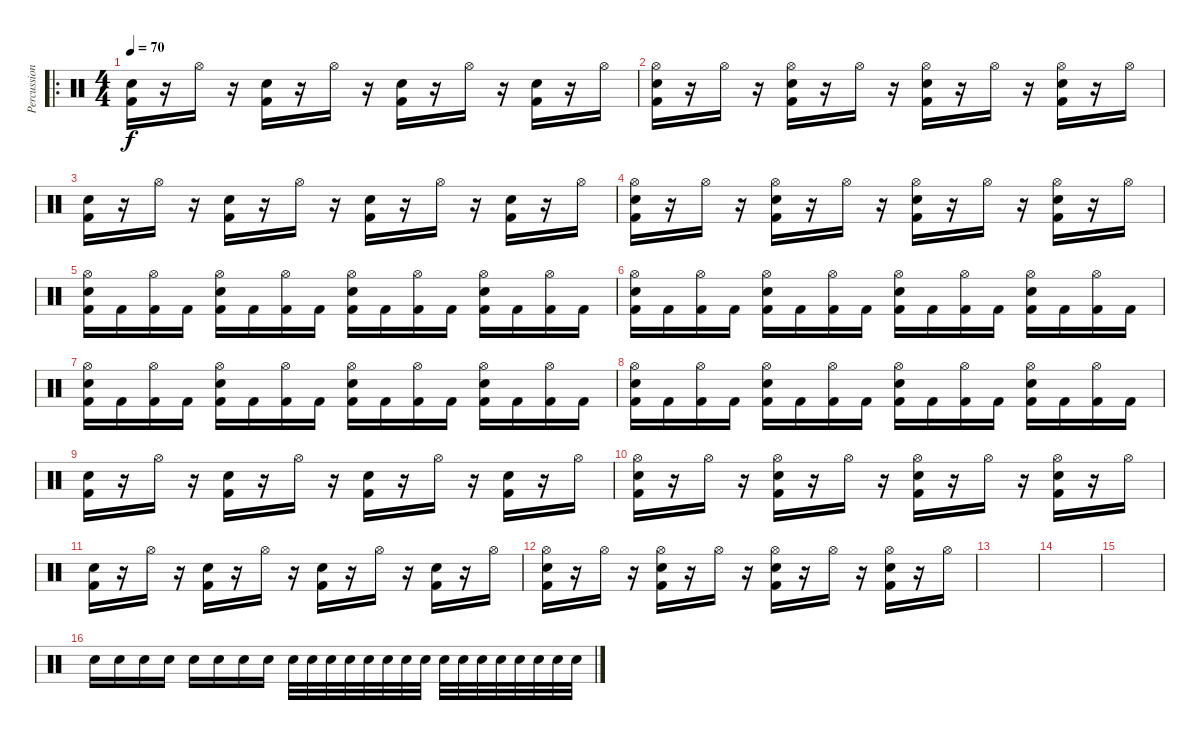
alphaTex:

\track ("Percussions" "Percussion") {instrument percussion}
\staff {score}
\articulation defaults
\ro
\ts (4 4)
\tempo 70
\clef neutral
\ks c
("Snare (hit) 2" "Kick (hit) 2").16{dy f} r.16 "Hi-Hat (open)".16 r.16 ("Snare (hit) 2" "Kick (hit) 2").16 r.16 "Hi-Hat (open)".16 r.16 ("Snare (hit) 2" "Kick (hit) 2").16 r.16 "Hi-Hat (open)".16 r.16 ("Snare (hit) 2" "Kick (hit) 2").16 r.16 "Hi-Hat (open)".16 |
("Hi-Hat (open)" "Snare (hit) 2" "Kick (hit) 2").16 r.16 "Hi-Hat (open)".16 r.16 ("Hi-Hat (open)" "Snare (hit) 2" "Kick (hit) 2").16 r.16 "Hi-Hat (open)".16 r.16 ("Hi-Hat (open)" "Snare (hit) 2" "Kick (hit) 2").16 r.16 "Hi-Hat (open)".16 r.16 ("Hi-Hat (open)" "Snare (hit) 2" "Kick (hit) 2").16 r.16 "Hi-Hat (open)".16 |
("Snare (hit) 2" "Kick (hit) 2").16 r.16 "Hi-Hat (open)".16 r.16 ("Snare (hit) 2" "Kick (hit) 2").16 r.16 "Hi-Hat (open)".16 r.16 ("Snare (hit) 2" "Kick (hit) 2").16 r.16 "Hi-Hat (open)".16 r.16 ("Snare (hit) 2" "Kick (hit) 2").16 r.16 "Hi-Hat (open)".16 |
("Hi-Hat (open)" "Snare (hit) 2" "Kick (hit) 2").16 r.16 "Hi-Hat (open)".16 r.16 ("Hi-Hat (open)" "Snare (hit) 2" "Kick (hit) 2").16 r.16 "Hi-Hat (open)".16 r.16 ("Hi-Hat (open)" "Snare (hit) 2" "Kick (hit) 2").16 r.16 "Hi-Hat (open)".16 r.16 ("Hi-Hat (open)" "Snare (hit) 2" "Kick (hit) 2").16 r.16 "Hi-Hat (open)".16 |
("Hi-Hat (open)" "Snare (hit) 2" "Kick (hit) 2").16 "Kick (hit) 2".16 ("Hi-Hat (open)" "Kick (hit) 2").16 "Kick (hit) 2".16 ("Hi-Hat (open)" "Snare (hit) 2" "Kick (hit) 2").16 "Kick (hit) 2".16 ("Hi-Hat (open)" "Kick (hit) 2").16 "Kick (hit) 2".16 ("Hi-Hat (open)" "Snare (hit) 2" "Kick (hit) 2").16 "Kick (hit) 2".16 ("Hi-Hat (open)" "Kick (hit) 2").16 "Kick (hit) 2".16 ("Hi-Hat (open)" "Snare (hit) 2" "Kick (hit) 2").16 "Kick (hit) 2".16 ("Hi-Hat (open)" "Kick (hit) 2").16 "Kick (hit) 2".16 |
("Hi-Hat (open)" "Snare (hit) 2" "Kick (hit) 2").16 "Kick (hit) 2".16 ("Hi-Hat (open)" "Kick (hit) 2").16 "Kick (hit) 2".16 ("Hi-Hat (open)" "Snare (hit) 2" "Kick (hit) 2").16 "Kick (hit) 2".16 ("Hi-Hat (open)" "Kick (hit) 2").16 "Kick (hit) 2".16 ("Hi-Hat (open)" "Snare (hit) 2" "Kick (hit) 2").16 "Kick (hit) 2".16 ("Hi-Hat (open)" "Kick (hit) 2").16 "Kick (hit) 2".16 ("Hi-Hat (open)" "Snare (hit) 2" "Kick (hit) 2").16 "Kick (hit) 2".16 ("Hi-Hat (open)" "Kick (hit) 2").16 "Kick (hit) 2".16 |
("Hi-Hat (open)" "Snare (hit) 2" "Kick (hit) 2").16 "Kick (hit) 2".16 ("Hi-Hat (open)" "Kick (hit) 2").16 "Kick (hit) 2".16 ("Hi-Hat (open)" "Snare (hit) 2" "Kick (hit) 2").16 "Kick (hit) 2".16 ("Hi-Hat (open)" "Kick (hit) 2").16 "Kick (hit) 2".16 ("Hi-Hat (open)" "Snare (hit) 2" "Kick (hit) 2").16 "Kick (hit) 2".16 ("Hi-Hat (open)" "Kick (hit) 2").16 "Kick (hit) 2".16 ("Hi-Hat (open)" "Snare (hit) 2" "Kick (hit) 2").16 "Kick (hit) 2".16 ("Hi-Hat (open)" "Kick (hit) 2").16 "Kick (hit) 2".16 |
("Hi-Hat (open)" "Snare (hit) 2" "Kick (hit) 2").16 "Kick (hit) 2".16 ("Hi-Hat (open)" "Kick (hit) 2").16 "Kick (hit) 2".16 ("Hi-Hat (open)" "Snare (hit) 2" "Kick (hit) 2").16 "Kick (hit) 2".16 ("Hi-Hat (open)" "Kick (hit) 2").16 "Kick (hit) 2".16 ("Hi-Hat (open)" "Snare (hit) 2" "Kick (hit) 2").16 "Kick (hit) 2".16 ("Hi-Hat (open)" "Kick (hit) 2").16 "Kick (hit) 2".16 ("Hi-Hat (open)" "Snare (hit) 2" "Kick (hit) 2").16 "Kick (hit) 2".16 ("Hi-Hat (open)" "Kick (hit) 2").16 "Kick (hit) 2".16 |
("Snare (hit) 2" "Kick (hit) 2").16 r.16 "Hi-Hat (open)".16 r.16 ("Snare (hit) 2" "Kick (hit) 2").16 r.16 "Hi-Hat (open)".16 r.16 ("Snare (hit) 2" "Kick (hit) 2").16 r.16 "Hi-Hat (open)".16 r.16 ("Snare (hit) 2" "Kick (hit) 2").16 r.16 "Hi-Hat (open)".16 |
("Hi-Hat (open)" "Snare (hit) 2" "Kick (hit) 2").16 r.16 "Hi-Hat (open)".16 r.16 ("Hi-Hat (open)" "Snare (hit) 2" "Kick (hit) 2").16 r.16 "Hi-Hat (open)".16 r.16 ("Hi-Hat (open)" "Snare (hit) 2" "Kick (hit) 2").16 r.16 "Hi-Hat (open)".16 r.16 ("Hi-Hat (open)" "Snare (hit) 2" "Kick (hit) 2").16 r.16 "Hi-Hat (open)".16 |
("Snare (hit) 2" "Kick (hit) 2").16 r.16 "Hi-Hat (open)".16 r.16 ("Snare (hit) 2" "Kick (hit) 2").16 r.16 "Hi-Hat (open)".16 r.16 ("Snare (hit) 2" "Kick (hit) 2").16 r.16 "Hi-Hat (open)".16 r.16 ("Snare (hit) 2" "Kick (hit) 2").16 r.16 "Hi-Hat (open)".16 |
("Hi-Hat (open)" "Snare (hit) 2" "Kick (hit) 2").16 r.16 "Hi-Hat (open)".16 r.16 ("Hi-Hat (open)" "Snare (hit) 2" "Kick (hit) 2").16 r.16 "Hi-Hat (open)".16 r.16 ("Hi-Hat (open)" "Snare (hit) 2" "Kick (hit) 2").16 r.16 "Hi-Hat (open)".16 r.16 ("Hi-Hat (open)" "Snare (hit) 2" "Kick (hit) 2").16 r.16 "Hi-Hat (open)".16 |
|
|
|
"Snare (hit) 2".16 "Snare (hit) 2".16 "Snare (hit) 2".16 "Snare (hit) 2".16 "Snare (hit) 2".16 "Snare (hit) 2".16 "Snare (hit) 2".16 "Snare (hit) 2".16 "Snare (hit) 2".32 "Snare (hit) 2".32 "Snare (hit) 2".32 "Snare (hit) 2".32 "Snare (hit) 2".32 "Snare (hit) 2".32 "Snare (hit) 2".32 "Snare (hit) 2".32 "Snare (hit) 2".32 "Snare (hit) 2".32 "Snare (hit) 2".32 "Snare (hit) 2".32 "Snare (hit) 2".32 "Snare (hit) 2".32 "Snare (hit) 2".32 "Snare (hit) 2".32
